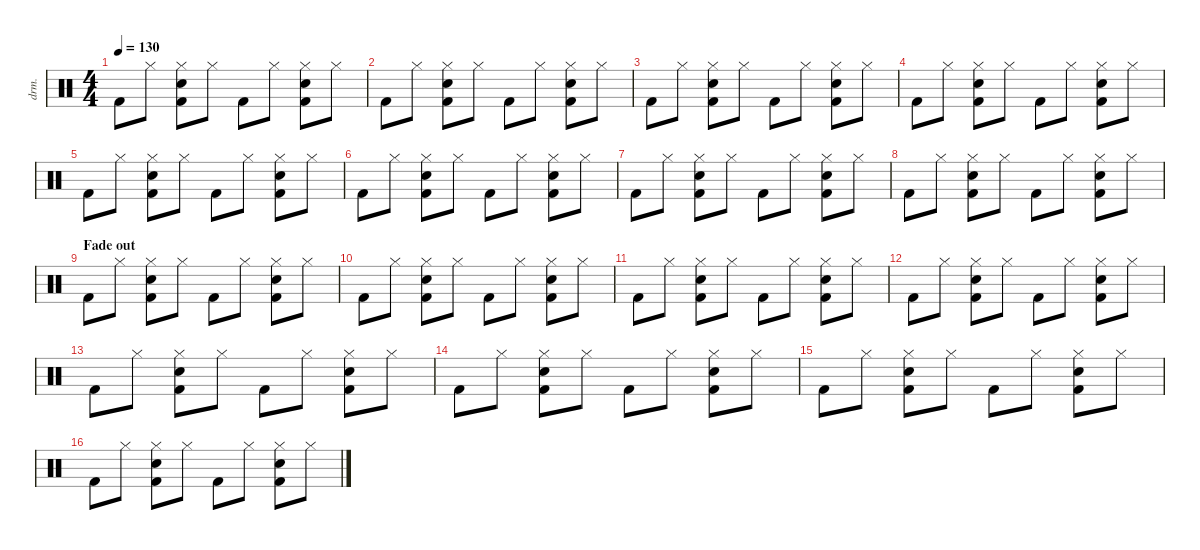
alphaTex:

\defaultSystemsLayout 4
\hideDynamics
\bracketExtendMode nobrackets
\otherSystemsTrackNameOrientation horizontal
\track ("Percussion" "drm.") {defaultSystemsLayout 4 instrument percussion}
\staff {score}
\articulation defaults
\ts (4 4)
\tempo 130
\clef neutral
\ks c "Kick (hit) 2".8{dy f beam Down} "Hi-Hat (closed)".8{beam Down}
("Hi-Hat (closed)" "Snare (hit) 2" "Kick (hit) 2").8{beam Down} "Hi-Hat (closed)".8{beam Down} "Kick (hit) 2".8{beam Down} "Hi-Hat (closed)".8{beam Down} ("Hi-Hat (closed)" "Snare (hit) 2" "Kick (hit) 2").8{beam Down} "Hi-Hat (closed)".8{beam Down} |
"Kick (hit) 2".8{beam Down} "Hi-Hat (closed)".8{beam Down} ("Hi-Hat (closed)" "Snare (hit) 2" "Kick (hit) 2").8{beam Down} "Hi-Hat (closed)".8{beam Down} "Kick (hit) 2".8{beam Down} "Hi-Hat (closed)".8{beam Down} ("Hi-Hat (closed)" "Snare (hit) 2" "Kick (hit) 2").8{beam Down} "Hi-Hat (closed)".8{beam Down} |
"Kick (hit) 2".8{beam Down} "Hi-Hat (closed)".8{beam Down} ("Hi-Hat (closed)" "Snare (hit) 2" "Kick (hit) 2").8{beam Down} "Hi-Hat (closed)".8{beam Down} "Kick (hit) 2".8{beam Down} "Hi-Hat (closed)".8{beam Down} ("Hi-Hat (closed)" "Snare (hit) 2" "Kick (hit) 2").8{beam Down} "Hi-Hat (closed)".8{beam Down} |
"Kick (hit) 2".8{beam Down} "Hi-Hat (closed)".8{beam Down} ("Hi-Hat (closed)" "Snare (hit) 2" "Kick (hit) 2").8{beam Down} "Hi-Hat (closed)".8{beam Down} "Kick (hit) 2".8{beam Down} "Hi-Hat (closed)".8{beam Down} ("Hi-Hat (closed)" "Snare (hit) 2" "Kick (hit) 2").8{beam Down} "Hi-Hat (closed)".8{beam Down} |
"Kick (hit) 2".8{beam Down} "Hi-Hat (closed)".8{beam Down} ("Hi-Hat (closed)" "Snare (hit) 2" "Kick (hit) 2").8{beam Down} "Hi-Hat (closed)".8{beam Down} "Kick (hit) 2".8{beam Down} "Hi-Hat (closed)".8{beam Down} ("Hi-Hat (closed)" "Snare (hit) 2" "Kick (hit) 2").8{beam Down} "Hi-Hat (closed)".8{beam Down} |
"Kick (hit) 2".8{beam Down} "Hi-Hat (closed)".8{beam Down} ("Hi-Hat (closed)" "Snare (hit) 2" "Kick (hit) 2").8{beam Down} "Hi-Hat (closed)".8{beam Down} "Kick (hit) 2".8{beam Down} "Hi-Hat (closed)".8{beam Down} ("Hi-Hat (closed)" "Snare (hit) 2" "Kick (hit) 2").8{beam Down} "Hi-Hat (closed)".8{beam Down} |
"Kick (hit) 2".8{beam Down} "Hi-Hat (closed)".8{beam Down} ("Hi-Hat (closed)" "Snare (hit) 2" "Kick (hit) 2").8{beam Down} "Hi-Hat (closed)".8{beam Down} "Kick (hit) 2".8{beam Down} "Hi-Hat (closed)".8{beam Down} ("Hi-Hat (closed)" "Snare (hit) 2" "Kick (hit) 2").8{beam Down} "Hi-Hat (closed)".8{beam Down} |
"Kick (hit) 2".8{beam Down} "Hi-Hat (closed)".8{beam Down} ("Hi-Hat (closed)" "Snare (hit) 2" "Kick (hit) 2").8{beam Down} "Hi-Hat (closed)".8{beam Down} "Kick (hit) 2".8{beam Down} "Hi-Hat (closed)".8{beam Down} ("Hi-Hat (closed)" "Snare (hit) 2" "Kick (hit) 2").8{beam Down} "Hi-Hat (closed)".8{beam Down} |
\section ("" "Fade out")
"Kick (hit) 2".8{beam Down} "Hi-Hat (closed)".8{beam Down} ("Hi-Hat (closed)" "Snare (hit) 2" "Kick (hit) 2").8{beam Down} "Hi-Hat (closed)".8{beam Down} "Kick (hit) 2".8{beam Down} "Hi-Hat (closed)".8{beam Down} ("Hi-Hat (closed)" "Snare (hit) 2" "Kick (hit) 2").8{beam Down} "Hi-Hat (closed)".8{beam Down} |
"Kick (hit) 2".8{beam Down} "Hi-Hat (closed)".8{beam Down} ("Hi-Hat (closed)" "Snare (hit) 2" "Kick (hit) 2").8{beam Down} "Hi-Hat (closed)".8{beam Down} "Kick (hit) 2".8{beam Down} "Hi-Hat (closed)".8{beam Down} ("Hi-Hat (closed)" "Snare (hit) 2" "Kick (hit) 2").8{beam Down} "Hi-Hat (closed)".8{beam Down} |
"Kick (hit) 2".8{beam Down} "Hi-Hat (closed)".8{beam Down} ("Hi-Hat (closed)" "Snare (hit) 2" "Kick (hit) 2").8{beam Down} "Hi-Hat (closed)".8{beam Down} "Kick (hit) 2".8{beam Down} "Hi-Hat (closed)".8{beam Down} ("Hi-Hat (closed)" "Snare (hit) 2" "Kick (hit) 2").8{beam Down} "Hi-Hat (closed)".8{beam Down} |
"Kick (hit) 2".8{beam Down} "Hi-Hat (closed)".8{beam Down} ("Hi-Hat (closed)" "Snare (hit) 2" "Kick (hit) 2").8{beam Down} "Hi-Hat (closed)".8{beam Down} "Kick (hit) 2".8{beam Down} "Hi-Hat (closed)".8{beam Down} ("Hi-Hat (closed)" "Snare (hit) 2" "Kick (hit) 2").8{beam Down} "Hi-Hat (closed)".8{beam Down} |
"Kick (hit) 2".8{beam Down} "Hi-Hat (closed)".8{beam Down} ("Hi-Hat (closed)" "Snare (hit) 2" "Kick (hit) 2").8{beam Down} "Hi-Hat (closed)".8{beam Down} "Kick (hit) 2".8{beam Down} "Hi-Hat (closed)".8{beam Down} ("Hi-Hat (closed)" "Snare (hit) 2" "Kick (hit) 2").8{beam Down} "Hi-Hat (closed)".8{beam Down} |
"Kick (hit) 2".8{beam Down} "Hi-Hat (closed)".8{beam Down} ("Hi-Hat (closed)" "Snare (hit) 2" "Kick (hit) 2").8{beam Down} "Hi-Hat (closed)".8{beam Down} "Kick (hit) 2".8{beam Down} "Hi-Hat (closed)".8{beam Down} ("Hi-Hat (closed)" "Snare (hit) 2" "Kick (hit) 2").8{beam Down} "Hi-Hat (closed)".8{beam Down} |
"Kick (hit) 2".8{beam Down} "Hi-Hat (closed)".8{beam Down} ("Hi-Hat (closed)" "Snare (hit) 2" "Kick (hit) 2").8{beam Down} "Hi-Hat (closed)".8{beam Down} "Kick (hit) 2".8{beam Down} "Hi-Hat (closed)".8{beam Down} ("Hi-Hat (closed)" "Snare (hit) 2" "Kick (hit) 2").8{beam Down} "Hi-Hat (closed)".8{beam Down} |
"Kick (hit) 2".8{beam Down} "Hi-Hat (closed)".8{beam Down} ("Hi-Hat (closed)" "Snare (hit) 2" "Kick (hit) 2").8{beam Down} "Hi-Hat (closed)".8{beam Down} "Kick (hit) 2".8{beam Down} "Hi-Hat (closed)".8{beam Down} ("Hi-Hat (closed)" "Snare (hit) 2" "Kick (hit) 2").8{beam Down} "Hi-Hat (closed)".8{beam Down}
